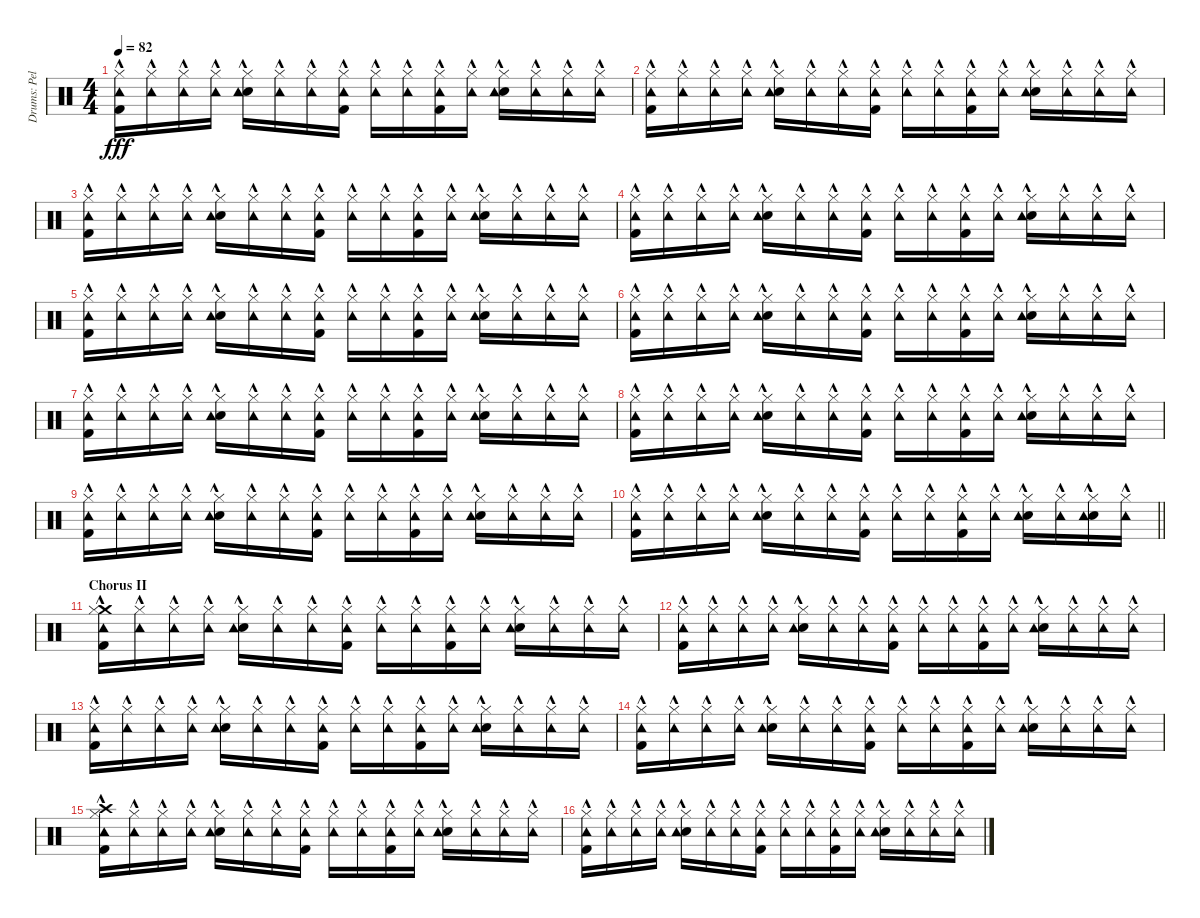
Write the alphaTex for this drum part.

\track ("Drums: Pelle" "Drums: Pel") {instrument percussion}
\staff {score}
\articulation defaults
\ts (4 4)
\tempo 82
\clef neutral
\ks c
("Hi-Hat (closed)"{hac} "Tambourine (hit)"{hac} "Kick (hit) 2"{hac}).16{dy fff} ("Hi-Hat (closed)"{hac} "Tambourine (hit)"{hac}).16 ("Hi-Hat (closed)"{hac} "Tambourine (hit)"{hac}).16 ("Hi-Hat (closed)"{hac} "Tambourine (hit)"{hac}).16 ("Hi-Hat (closed)"{hac} "Snare (hit) 2"{hac} "Tambourine (hit)"{hac}).16 ("Hi-Hat (closed)"{hac} "Tambourine (hit)"{hac}).16 ("Hi-Hat (closed)"{hac} "Tambourine (hit)"{hac}).16 ("Hi-Hat (closed)"{hac} "Tambourine (hit)"{hac} "Kick (hit) 2"{hac}).16 ("Hi-Hat (closed)"{hac} "Tambourine (hit)"{hac}).16 ("Hi-Hat (closed)"{hac} "Tambourine (hit)"{hac}).16 ("Hi-Hat (closed)"{hac} "Tambourine (hit)"{hac} "Kick (hit) 2"{hac}).16 ("Hi-Hat (closed)"{hac} "Tambourine (hit)"{hac}).16 ("Hi-Hat (closed)"{hac} "Snare (hit) 2"{hac} "Tambourine (hit)"{hac}).16 ("Hi-Hat (closed)"{hac} "Tambourine (hit)"{hac}).16 ("Hi-Hat (closed)"{hac} "Tambourine (hit)"{hac}).16 ("Hi-Hat (closed)"{hac} "Tambourine (hit)"{hac}).16 |
("Hi-Hat (closed)"{hac} "Tambourine (hit)"{hac} "Kick (hit) 2"{hac}).16 ("Hi-Hat (closed)"{hac} "Tambourine (hit)"{hac}).16 ("Hi-Hat (closed)"{hac} "Tambourine (hit)"{hac}).16 ("Hi-Hat (closed)"{hac} "Tambourine (hit)"{hac}).16 ("Hi-Hat (closed)"{hac} "Snare (hit) 2"{hac} "Tambourine (hit)"{hac}).16 ("Hi-Hat (closed)"{hac} "Tambourine (hit)"{hac}).16 ("Hi-Hat (closed)"{hac} "Tambourine (hit)"{hac}).16 ("Hi-Hat (closed)"{hac} "Tambourine (hit)"{hac} "Kick (hit) 2"{hac}).16 ("Hi-Hat (closed)"{hac} "Tambourine (hit)"{hac}).16 ("Hi-Hat (closed)"{hac} "Tambourine (hit)"{hac}).16 ("Hi-Hat (closed)"{hac} "Tambourine (hit)"{hac} "Kick (hit) 2"{hac}).16 ("Hi-Hat (closed)"{hac} "Tambourine (hit)"{hac}).16 ("Hi-Hat (closed)"{hac} "Snare (hit) 2"{hac} "Tambourine (hit)"{hac}).16 ("Hi-Hat (closed)"{hac} "Tambourine (hit)"{hac}).16 ("Hi-Hat (closed)"{hac} "Tambourine (hit)"{hac}).16 ("Hi-Hat (closed)"{hac} "Tambourine (hit)"{hac}).16 |
("Hi-Hat (closed)"{hac} "Tambourine (hit)"{hac} "Kick (hit) 2"{hac}).16 ("Hi-Hat (closed)"{hac} "Tambourine (hit)"{hac}).16 ("Hi-Hat (closed)"{hac} "Tambourine (hit)"{hac}).16 ("Hi-Hat (closed)"{hac} "Tambourine (hit)"{hac}).16 ("Hi-Hat (closed)"{hac} "Snare (hit) 2"{hac} "Tambourine (hit)"{hac}).16 ("Hi-Hat (closed)"{hac} "Tambourine (hit)"{hac}).16 ("Hi-Hat (closed)"{hac} "Tambourine (hit)"{hac}).16 ("Hi-Hat (closed)"{hac} "Tambourine (hit)"{hac} "Kick (hit) 2"{hac}).16 ("Hi-Hat (closed)"{hac} "Tambourine (hit)"{hac}).16 ("Hi-Hat (closed)"{hac} "Tambourine (hit)"{hac}).16 ("Hi-Hat (closed)"{hac} "Tambourine (hit)"{hac} "Kick (hit) 2"{hac}).16 ("Hi-Hat (closed)"{hac} "Tambourine (hit)"{hac}).16 ("Hi-Hat (closed)"{hac} "Snare (hit) 2"{hac} "Tambourine (hit)"{hac}).16 ("Hi-Hat (closed)"{hac} "Tambourine (hit)"{hac}).16 ("Hi-Hat (closed)"{hac} "Tambourine (hit)"{hac}).16 ("Hi-Hat (closed)"{hac} "Tambourine (hit)"{hac}).16 |
("Hi-Hat (closed)"{hac} "Tambourine (hit)"{hac} "Kick (hit) 2"{hac}).16 ("Hi-Hat (closed)"{hac} "Tambourine (hit)"{hac}).16 ("Hi-Hat (closed)"{hac} "Tambourine (hit)"{hac}).16 ("Hi-Hat (closed)"{hac} "Tambourine (hit)"{hac}).16 ("Hi-Hat (closed)"{hac} "Snare (hit) 2"{hac} "Tambourine (hit)"{hac}).16 ("Hi-Hat (closed)"{hac} "Tambourine (hit)"{hac}).16 ("Hi-Hat (closed)"{hac} "Tambourine (hit)"{hac}).16 ("Hi-Hat (closed)"{hac} "Tambourine (hit)"{hac} "Kick (hit) 2"{hac}).16 ("Hi-Hat (closed)"{hac} "Tambourine (hit)"{hac}).16 ("Hi-Hat (closed)"{hac} "Tambourine (hit)"{hac}).16 ("Hi-Hat (closed)"{hac} "Tambourine (hit)"{hac} "Kick (hit) 2"{hac}).16 ("Hi-Hat (closed)"{hac} "Tambourine (hit)"{hac}).16 ("Hi-Hat (closed)"{hac} "Snare (hit) 2"{hac} "Tambourine (hit)"{hac}).16 ("Hi-Hat (closed)"{hac} "Tambourine (hit)"{hac}).16 ("Hi-Hat (closed)"{hac} "Tambourine (hit)"{hac}).16 ("Hi-Hat (closed)"{hac} "Tambourine (hit)"{hac}).16 |
("Hi-Hat (closed)"{hac} "Tambourine (hit)"{hac} "Kick (hit) 2"{hac}).16 ("Hi-Hat (closed)"{hac} "Tambourine (hit)"{hac}).16 ("Hi-Hat (closed)"{hac} "Tambourine (hit)"{hac}).16 ("Hi-Hat (closed)"{hac} "Tambourine (hit)"{hac}).16 ("Hi-Hat (closed)"{hac} "Snare (hit) 2"{hac} "Tambourine (hit)"{hac}).16 ("Hi-Hat (closed)"{hac} "Tambourine (hit)"{hac}).16 ("Hi-Hat (closed)"{hac} "Tambourine (hit)"{hac}).16 ("Hi-Hat (closed)"{hac} "Tambourine (hit)"{hac} "Kick (hit) 2"{hac}).16 ("Hi-Hat (closed)"{hac} "Tambourine (hit)"{hac}).16 ("Hi-Hat (closed)"{hac} "Tambourine (hit)"{hac}).16 ("Hi-Hat (closed)"{hac} "Tambourine (hit)"{hac} "Kick (hit) 2"{hac}).16 ("Hi-Hat (closed)"{hac} "Tambourine (hit)"{hac}).16 ("Hi-Hat (closed)"{hac} "Snare (hit) 2"{hac} "Tambourine (hit)"{hac}).16 ("Hi-Hat (closed)"{hac} "Tambourine (hit)"{hac}).16 ("Hi-Hat (closed)"{hac} "Tambourine (hit)"{hac}).16 ("Hi-Hat (closed)"{hac} "Tambourine (hit)"{hac}).16 |
("Hi-Hat (closed)"{hac} "Tambourine (hit)"{hac} "Kick (hit) 2"{hac}).16 ("Hi-Hat (closed)"{hac} "Tambourine (hit)"{hac}).16 ("Hi-Hat (closed)"{hac} "Tambourine (hit)"{hac}).16 ("Hi-Hat (closed)"{hac} "Tambourine (hit)"{hac}).16 ("Hi-Hat (closed)"{hac} "Snare (hit) 2"{hac} "Tambourine (hit)"{hac}).16 ("Hi-Hat (closed)"{hac} "Tambourine (hit)"{hac}).16 ("Hi-Hat (closed)"{hac} "Tambourine (hit)"{hac}).16 ("Hi-Hat (closed)"{hac} "Tambourine (hit)"{hac} "Kick (hit) 2"{hac}).16 ("Hi-Hat (closed)"{hac} "Tambourine (hit)"{hac}).16 ("Hi-Hat (closed)"{hac} "Tambourine (hit)"{hac}).16 ("Hi-Hat (closed)"{hac} "Tambourine (hit)"{hac} "Kick (hit) 2"{hac}).16 ("Hi-Hat (closed)"{hac} "Tambourine (hit)"{hac}).16 ("Hi-Hat (closed)"{hac} "Snare (hit) 2"{hac} "Tambourine (hit)"{hac}).16 ("Hi-Hat (closed)"{hac} "Tambourine (hit)"{hac}).16 ("Hi-Hat (closed)"{hac} "Tambourine (hit)"{hac}).16 ("Hi-Hat (closed)"{hac} "Tambourine (hit)"{hac}).16 |
("Hi-Hat (closed)"{hac} "Tambourine (hit)"{hac} "Kick (hit) 2"{hac}).16 ("Hi-Hat (closed)"{hac} "Tambourine (hit)"{hac}).16 ("Hi-Hat (closed)"{hac} "Tambourine (hit)"{hac}).16 ("Hi-Hat (closed)"{hac} "Tambourine (hit)"{hac}).16 ("Hi-Hat (closed)"{hac} "Snare (hit) 2"{hac} "Tambourine (hit)"{hac}).16 ("Hi-Hat (closed)"{hac} "Tambourine (hit)"{hac}).16 ("Hi-Hat (closed)"{hac} "Tambourine (hit)"{hac}).16 ("Hi-Hat (closed)"{hac} "Tambourine (hit)"{hac} "Kick (hit) 2"{hac}).16 ("Hi-Hat (closed)"{hac} "Tambourine (hit)"{hac}).16 ("Hi-Hat (closed)"{hac} "Tambourine (hit)"{hac}).16 ("Hi-Hat (closed)"{hac} "Tambourine (hit)"{hac} "Kick (hit) 2"{hac}).16 ("Hi-Hat (closed)"{hac} "Tambourine (hit)"{hac}).16 ("Hi-Hat (closed)"{hac} "Snare (hit) 2"{hac} "Tambourine (hit)"{hac}).16 ("Hi-Hat (closed)"{hac} "Tambourine (hit)"{hac}).16 ("Hi-Hat (closed)"{hac} "Tambourine (hit)"{hac}).16 ("Hi-Hat (closed)"{hac} "Tambourine (hit)"{hac}).16 |
("Hi-Hat (closed)"{hac} "Tambourine (hit)"{hac} "Kick (hit) 2"{hac}).16 ("Hi-Hat (closed)"{hac} "Tambourine (hit)"{hac}).16 ("Hi-Hat (closed)"{hac} "Tambourine (hit)"{hac}).16 ("Hi-Hat (closed)"{hac} "Tambourine (hit)"{hac}).16 ("Hi-Hat (closed)"{hac} "Snare (hit) 2"{hac} "Tambourine (hit)"{hac}).16 ("Hi-Hat (closed)"{hac} "Tambourine (hit)"{hac}).16 ("Hi-Hat (closed)"{hac} "Tambourine (hit)"{hac}).16 ("Hi-Hat (closed)"{hac} "Tambourine (hit)"{hac} "Kick (hit) 2"{hac}).16 ("Hi-Hat (closed)"{hac} "Tambourine (hit)"{hac}).16 ("Hi-Hat (closed)"{hac} "Tambourine (hit)"{hac}).16 ("Hi-Hat (closed)"{hac} "Tambourine (hit)"{hac} "Kick (hit) 2"{hac}).16 ("Hi-Hat (closed)"{hac} "Tambourine (hit)"{hac}).16 ("Hi-Hat (closed)"{hac} "Snare (hit) 2"{hac} "Tambourine (hit)"{hac}).16 ("Hi-Hat (closed)"{hac} "Tambourine (hit)"{hac}).16 ("Hi-Hat (closed)"{hac} "Tambourine (hit)"{hac}).16 ("Hi-Hat (closed)"{hac} "Tambourine (hit)"{hac}).16 |
("Hi-Hat (closed)"{hac} "Tambourine (hit)"{hac} "Kick (hit) 2"{hac}).16 ("Hi-Hat (closed)"{hac} "Tambourine (hit)"{hac}).16 ("Hi-Hat (closed)"{hac} "Tambourine (hit)"{hac}).16 ("Hi-Hat (closed)"{hac} "Tambourine (hit)"{hac}).16 ("Hi-Hat (closed)"{hac} "Snare (hit) 2"{hac} "Tambourine (hit)"{hac}).16 ("Hi-Hat (closed)"{hac} "Tambourine (hit)"{hac}).16 ("Hi-Hat (closed)"{hac} "Tambourine (hit)"{hac}).16 ("Hi-Hat (closed)"{hac} "Tambourine (hit)"{hac} "Kick (hit) 2"{hac}).16 ("Hi-Hat (closed)"{hac} "Tambourine (hit)"{hac}).16 ("Hi-Hat (closed)"{hac} "Tambourine (hit)"{hac}).16 ("Hi-Hat (closed)"{hac} "Tambourine (hit)"{hac} "Kick (hit) 2"{hac}).16 ("Hi-Hat (closed)"{hac} "Tambourine (hit)"{hac}).16 ("Hi-Hat (closed)"{hac} "Snare (hit) 2"{hac} "Tambourine (hit)"{hac}).16 ("Hi-Hat (closed)"{hac} "Tambourine (hit)"{hac}).16 ("Hi-Hat (closed)"{hac} "Tambourine (hit)"{hac}).16 ("Hi-Hat (closed)"{hac} "Tambourine (hit)"{hac}).16 |
\barLineRight lightlight
("Hi-Hat (closed)"{hac} "Tambourine (hit)"{hac} "Kick (hit) 2"{hac}).16 ("Hi-Hat (closed)"{hac} "Tambourine (hit)"{hac}).16 ("Hi-Hat (closed)"{hac} "Tambourine (hit)"{hac}).16 ("Hi-Hat (closed)"{hac} "Tambourine (hit)"{hac}).16 ("Hi-Hat (closed)"{hac} "Snare (hit) 2"{hac} "Tambourine (hit)"{hac}).16 ("Hi-Hat (closed)"{hac} "Tambourine (hit)"{hac}).16 ("Hi-Hat (closed)"{hac} "Tambourine (hit)"{hac}).16 ("Hi-Hat (closed)"{hac} "Tambourine (hit)"{hac} "Kick (hit) 2"{hac}).16 ("Hi-Hat (closed)"{hac} "Tambourine (hit)"{hac}).16 ("Hi-Hat (closed)"{hac} "Tambourine (hit)"{hac}).16 ("Hi-Hat (closed)"{hac} "Tambourine (hit)"{hac} "Kick (hit) 2"{hac}).16 ("Hi-Hat (closed)"{hac} "Tambourine (hit)"{hac}).16 ("Hi-Hat (closed)"{hac} "Snare (hit) 2"{hac} "Tambourine (hit)"{hac}).16 ("Hi-Hat (closed)"{hac} "Tambourine (hit)"{hac}).16 ("Hi-Hat (closed)"{hac} "Snare (hit) 2"{hac} "Tambourine (hit)"{hac}).16 ("Hi-Hat (closed)"{hac} "Tambourine (hit)"{hac}).16 |
\section ("" "Chorus II")
("Crash medium (hit)"{hac} "Hi-Hat (closed)"{hac} "Tambourine (hit)"{hac} "Kick (hit) 2"{hac}).16 ("Hi-Hat (closed)"{hac} "Tambourine (hit)"{hac}).16 ("Hi-Hat (closed)"{hac} "Tambourine (hit)"{hac}).16 ("Hi-Hat (closed)"{hac} "Tambourine (hit)"{hac}).16 ("Hi-Hat (closed)"{hac} "Snare (hit) 2"{hac} "Tambourine (hit)"{hac}).16 ("Hi-Hat (closed)"{hac} "Tambourine (hit)"{hac}).16 ("Hi-Hat (closed)"{hac} "Tambourine (hit)"{hac}).16 ("Hi-Hat (closed)"{hac} "Tambourine (hit)"{hac} "Kick (hit) 2"{hac}).16 ("Hi-Hat (closed)"{hac} "Tambourine (hit)"{hac}).16 ("Hi-Hat (closed)"{hac} "Tambourine (hit)"{hac}).16 ("Hi-Hat (closed)"{hac} "Tambourine (hit)"{hac} "Kick (hit) 2"{hac}).16 ("Hi-Hat (closed)"{hac} "Tambourine (hit)"{hac}).16 ("Hi-Hat (closed)"{hac} "Snare (hit) 2"{hac} "Tambourine (hit)"{hac}).16 ("Hi-Hat (closed)"{hac} "Tambourine (hit)"{hac}).16 ("Hi-Hat (closed)"{hac} "Tambourine (hit)"{hac}).16 ("Hi-Hat (closed)"{hac} "Tambourine (hit)"{hac}).16 |
("Hi-Hat (closed)"{hac} "Tambourine (hit)"{hac} "Kick (hit) 2"{hac}).16 ("Hi-Hat (closed)"{hac} "Tambourine (hit)"{hac}).16 ("Hi-Hat (closed)"{hac} "Tambourine (hit)"{hac}).16 ("Hi-Hat (closed)"{hac} "Tambourine (hit)"{hac}).16 ("Hi-Hat (closed)"{hac} "Snare (hit) 2"{hac} "Tambourine (hit)"{hac}).16 ("Hi-Hat (closed)"{hac} "Tambourine (hit)"{hac}).16 ("Hi-Hat (closed)"{hac} "Tambourine (hit)"{hac}).16 ("Hi-Hat (closed)"{hac} "Tambourine (hit)"{hac} "Kick (hit) 2"{hac}).16 ("Hi-Hat (closed)"{hac} "Tambourine (hit)"{hac}).16 ("Hi-Hat (closed)"{hac} "Tambourine (hit)"{hac}).16 ("Hi-Hat (closed)"{hac} "Tambourine (hit)"{hac} "Kick (hit) 2"{hac}).16 ("Hi-Hat (closed)"{hac} "Tambourine (hit)"{hac}).16 ("Hi-Hat (closed)"{hac} "Snare (hit) 2"{hac} "Tambourine (hit)"{hac}).16 ("Hi-Hat (closed)"{hac} "Tambourine (hit)"{hac}).16 ("Hi-Hat (closed)"{hac} "Tambourine (hit)"{hac}).16 ("Hi-Hat (closed)"{hac} "Tambourine (hit)"{hac}).16 |
("Hi-Hat (closed)"{hac} "Tambourine (hit)"{hac} "Kick (hit) 2"{hac}).16 ("Hi-Hat (closed)"{hac} "Tambourine (hit)"{hac}).16 ("Hi-Hat (closed)"{hac} "Tambourine (hit)"{hac}).16 ("Hi-Hat (closed)"{hac} "Tambourine (hit)"{hac}).16 ("Hi-Hat (closed)"{hac} "Snare (hit) 2"{hac} "Tambourine (hit)"{hac}).16 ("Hi-Hat (closed)"{hac} "Tambourine (hit)"{hac}).16 ("Hi-Hat (closed)"{hac} "Tambourine (hit)"{hac}).16 ("Hi-Hat (closed)"{hac} "Tambourine (hit)"{hac} "Kick (hit) 2"{hac}).16 ("Hi-Hat (closed)"{hac} "Tambourine (hit)"{hac}).16 ("Hi-Hat (closed)"{hac} "Tambourine (hit)"{hac}).16 ("Hi-Hat (closed)"{hac} "Tambourine (hit)"{hac} "Kick (hit) 2"{hac}).16 ("Hi-Hat (closed)"{hac} "Tambourine (hit)"{hac}).16 ("Hi-Hat (closed)"{hac} "Snare (hit) 2"{hac} "Tambourine (hit)"{hac}).16 ("Hi-Hat (closed)"{hac} "Tambourine (hit)"{hac}).16 ("Hi-Hat (closed)"{hac} "Tambourine (hit)"{hac}).16 ("Hi-Hat (closed)"{hac} "Tambourine (hit)"{hac}).16 |
("Hi-Hat (closed)"{hac} "Tambourine (hit)"{hac} "Kick (hit) 2"{hac}).16 ("Hi-Hat (closed)"{hac} "Tambourine (hit)"{hac}).16 ("Hi-Hat (closed)"{hac} "Tambourine (hit)"{hac}).16 ("Hi-Hat (closed)"{hac} "Tambourine (hit)"{hac}).16 ("Hi-Hat (closed)"{hac} "Snare (hit) 2"{hac} "Tambourine (hit)"{hac}).16 ("Hi-Hat (closed)"{hac} "Tambourine (hit)"{hac}).16 ("Hi-Hat (closed)"{hac} "Tambourine (hit)"{hac}).16 ("Hi-Hat (closed)"{hac} "Tambourine (hit)"{hac} "Kick (hit) 2"{hac}).16 ("Hi-Hat (closed)"{hac} "Tambourine (hit)"{hac}).16 ("Hi-Hat (closed)"{hac} "Tambourine (hit)"{hac}).16 ("Hi-Hat (closed)"{hac} "Tambourine (hit)"{hac} "Kick (hit) 2"{hac}).16 ("Hi-Hat (closed)"{hac} "Tambourine (hit)"{hac}).16 ("Hi-Hat (closed)"{hac} "Snare (hit) 2"{hac} "Tambourine (hit)"{hac}).16 ("Hi-Hat (closed)"{hac} "Tambourine (hit)"{hac}).16 ("Hi-Hat (closed)"{hac} "Tambourine (hit)"{hac}).16 ("Hi-Hat (closed)"{hac} "Tambourine (hit)"{hac}).16 |
("Crash high (hit)"{hac} "Hi-Hat (closed)"{hac} "Tambourine (hit)"{hac} "Kick (hit) 2"{hac}).16 ("Hi-Hat (closed)"{hac} "Tambourine (hit)"{hac}).16 ("Hi-Hat (closed)"{hac} "Tambourine (hit)"{hac}).16 ("Hi-Hat (closed)"{hac} "Tambourine (hit)"{hac}).16 ("Hi-Hat (closed)"{hac} "Snare (hit) 2"{hac} "Tambourine (hit)"{hac}).16 ("Hi-Hat (closed)"{hac} "Tambourine (hit)"{hac}).16 ("Hi-Hat (closed)"{hac} "Tambourine (hit)"{hac}).16 ("Hi-Hat (closed)"{hac} "Tambourine (hit)"{hac} "Kick (hit) 2"{hac}).16 ("Hi-Hat (closed)"{hac} "Tambourine (hit)"{hac}).16 ("Hi-Hat (closed)"{hac} "Tambourine (hit)"{hac}).16 ("Hi-Hat (closed)"{hac} "Tambourine (hit)"{hac} "Kick (hit) 2"{hac}).16 ("Hi-Hat (closed)"{hac} "Tambourine (hit)"{hac}).16 ("Hi-Hat (closed)"{hac} "Snare (hit) 2"{hac} "Tambourine (hit)"{hac}).16 ("Hi-Hat (closed)"{hac} "Tambourine (hit)"{hac}).16 ("Hi-Hat (closed)"{hac} "Tambourine (hit)"{hac}).16 ("Hi-Hat (closed)"{hac} "Tambourine (hit)"{hac}).16 |
("Hi-Hat (closed)"{hac} "Tambourine (hit)"{hac} "Kick (hit) 2"{hac}).16 ("Hi-Hat (closed)"{hac} "Tambourine (hit)"{hac}).16 ("Hi-Hat (closed)"{hac} "Tambourine (hit)"{hac}).16 ("Hi-Hat (closed)"{hac} "Tambourine (hit)"{hac}).16 ("Hi-Hat (closed)"{hac} "Snare (hit) 2"{hac} "Tambourine (hit)"{hac}).16 ("Hi-Hat (closed)"{hac} "Tambourine (hit)"{hac}).16 ("Hi-Hat (closed)"{hac} "Tambourine (hit)"{hac}).16 ("Hi-Hat (closed)"{hac} "Tambourine (hit)"{hac} "Kick (hit) 2"{hac}).16 ("Hi-Hat (closed)"{hac} "Tambourine (hit)"{hac}).16 ("Hi-Hat (closed)"{hac} "Tambourine (hit)"{hac}).16 ("Hi-Hat (closed)"{hac} "Tambourine (hit)"{hac} "Kick (hit) 2"{hac}).16 ("Hi-Hat (closed)"{hac} "Tambourine (hit)"{hac}).16 ("Hi-Hat (closed)"{hac} "Snare (hit) 2"{hac} "Tambourine (hit)"{hac}).16 ("Hi-Hat (closed)"{hac} "Tambourine (hit)"{hac}).16 ("Hi-Hat (closed)"{hac} "Tambourine (hit)"{hac}).16 ("Hi-Hat (closed)"{hac} "Tambourine (hit)"{hac}).16
